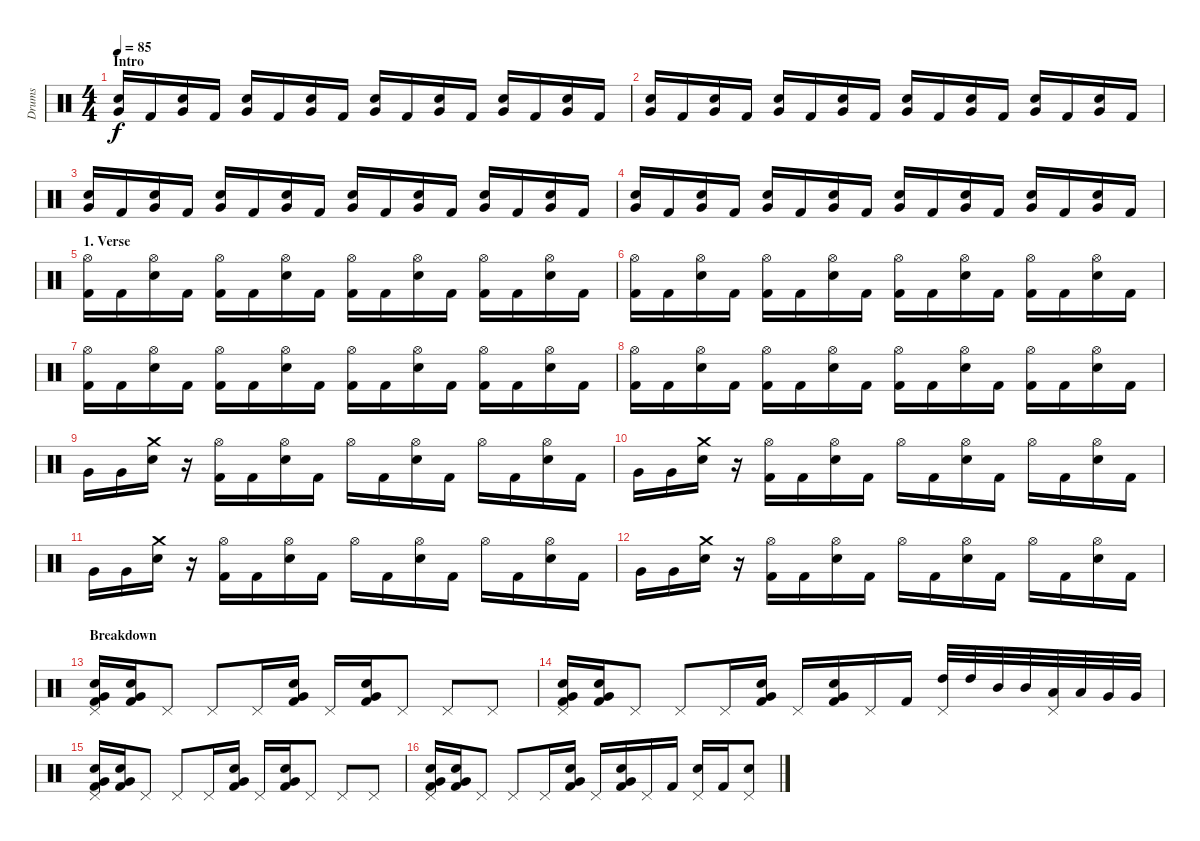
\track ("Drums" "Drums") {instrument percussion}
\staff {score}
\articulation defaults
\ts (4 4)
\section ("" "Intro")
\tempo 85
\clef neutral
\ks c
("Electric Snare (hit)" "Very Low Tom (hit)").16{dy f} "Kick (hit) 2".16 ("Electric Snare (hit)" "Very Low Tom (hit)").16 "Kick (hit) 2".16 ("Electric Snare (hit)" "Very Low Tom (hit)").16 "Kick (hit) 2".16 ("Electric Snare (hit)" "Very Low Tom (hit)").16 "Kick (hit) 2".16 ("Electric Snare (hit)" "Very Low Tom (hit)").16 "Kick (hit) 2".16 ("Electric Snare (hit)" "Very Low Tom (hit)").16 "Kick (hit) 2".16 ("Electric Snare (hit)" "Very Low Tom (hit)").16 "Kick (hit) 2".16 ("Electric Snare (hit)" "Very Low Tom (hit)").16 "Kick (hit) 2".16 |
("Electric Snare (hit)" "Very Low Tom (hit)").16 "Kick (hit) 2".16 ("Electric Snare (hit)" "Very Low Tom (hit)").16 "Kick (hit) 2".16 ("Electric Snare (hit)" "Very Low Tom (hit)").16 "Kick (hit) 2".16 ("Electric Snare (hit)" "Very Low Tom (hit)").16 "Kick (hit) 2".16 ("Electric Snare (hit)" "Very Low Tom (hit)").16 "Kick (hit) 2".16 ("Electric Snare (hit)" "Very Low Tom (hit)").16 "Kick (hit) 2".16 ("Electric Snare (hit)" "Very Low Tom (hit)").16 "Kick (hit) 2".16 ("Electric Snare (hit)" "Very Low Tom (hit)").16 "Kick (hit) 2".16 |
("Electric Snare (hit)" "Very Low Tom (hit)").16 "Kick (hit) 2".16 ("Electric Snare (hit)" "Very Low Tom (hit)").16 "Kick (hit) 2".16 ("Electric Snare (hit)" "Very Low Tom (hit)").16 "Kick (hit) 2".16 ("Electric Snare (hit)" "Very Low Tom (hit)").16 "Kick (hit) 2".16 ("Electric Snare (hit)" "Very Low Tom (hit)").16 "Kick (hit) 2".16 ("Electric Snare (hit)" "Very Low Tom (hit)").16 "Kick (hit) 2".16 ("Electric Snare (hit)" "Very Low Tom (hit)").16 "Kick (hit) 2".16 ("Electric Snare (hit)" "Very Low Tom (hit)").16 "Kick (hit) 2".16 |
("Electric Snare (hit)" "Very Low Tom (hit)").16 "Kick (hit) 2".16 ("Electric Snare (hit)" "Very Low Tom (hit)").16 "Kick (hit) 2".16 ("Electric Snare (hit)" "Very Low Tom (hit)").16 "Kick (hit) 2".16 ("Electric Snare (hit)" "Very Low Tom (hit)").16 "Kick (hit) 2".16 ("Electric Snare (hit)" "Very Low Tom (hit)").16 "Kick (hit) 2".16 ("Electric Snare (hit)" "Very Low Tom (hit)").16 "Kick (hit) 2".16 ("Electric Snare (hit)" "Very Low Tom (hit)").16 "Kick (hit) 2".16 ("Electric Snare (hit)" "Very Low Tom (hit)").16 "Kick (hit) 2".16 |
\section ("" "1. Verse")
("Hi-Hat (open)" "Kick (hit) 2").16 "Kick (hit) 2".16 ("Hi-Hat (open)" "Electric Snare (hit)").16 "Kick (hit) 2".16 ("Hi-Hat (open)" "Kick (hit) 2").16 "Kick (hit) 2".16 ("Hi-Hat (open)" "Electric Snare (hit)").16 "Kick (hit) 2".16 ("Hi-Hat (open)" "Kick (hit) 2").16 "Kick (hit) 2".16 ("Hi-Hat (open)" "Electric Snare (hit)").16 "Kick (hit) 2".16 ("Hi-Hat (open)" "Kick (hit) 2").16 "Kick (hit) 2".16 ("Hi-Hat (open)" "Electric Snare (hit)").16 "Kick (hit) 2".16 |
("Hi-Hat (open)" "Kick (hit) 2").16 "Kick (hit) 2".16 ("Hi-Hat (open)" "Electric Snare (hit)").16 "Kick (hit) 2".16 ("Hi-Hat (open)" "Kick (hit) 2").16 "Kick (hit) 2".16 ("Hi-Hat (open)" "Electric Snare (hit)").16 "Kick (hit) 2".16 ("Hi-Hat (open)" "Kick (hit) 2").16 "Kick (hit) 2".16 ("Hi-Hat (open)" "Electric Snare (hit)").16 "Kick (hit) 2".16 ("Hi-Hat (open)" "Kick (hit) 2").16 "Kick (hit) 2".16 ("Hi-Hat (open)" "Electric Snare (hit)").16 "Kick (hit) 2".16 |
("Hi-Hat (open)" "Kick (hit) 2").16 "Kick (hit) 2".16 ("Hi-Hat (open)" "Electric Snare (hit)").16 "Kick (hit) 2".16 ("Hi-Hat (open)" "Kick (hit) 2").16 "Kick (hit) 2".16 ("Hi-Hat (open)" "Electric Snare (hit)").16 "Kick (hit) 2".16 ("Hi-Hat (open)" "Kick (hit) 2").16 "Kick (hit) 2".16 ("Hi-Hat (open)" "Electric Snare (hit)").16 "Kick (hit) 2".16 ("Hi-Hat (open)" "Kick (hit) 2").16 "Kick (hit) 2".16 ("Hi-Hat (open)" "Electric Snare (hit)").16 "Kick (hit) 2".16 |
("Hi-Hat (open)" "Kick (hit) 2").16 "Kick (hit) 2".16 ("Hi-Hat (open)" "Electric Snare (hit)").16 "Kick (hit) 2".16 ("Hi-Hat (open)" "Kick (hit) 2").16 "Kick (hit) 2".16 ("Hi-Hat (open)" "Electric Snare (hit)").16 "Kick (hit) 2".16 ("Hi-Hat (open)" "Kick (hit) 2").16 "Kick (hit) 2".16 ("Hi-Hat (open)" "Electric Snare (hit)").16 "Kick (hit) 2".16 ("Hi-Hat (open)" "Kick (hit) 2").16 "Kick (hit) 2".16 ("Hi-Hat (open)" "Electric Snare (hit)").16 "Kick (hit) 2".16 |
"Very Low Tom (hit)".16 "Very Low Tom (hit)".16 ("Crash medium (hit)" "Electric Snare (hit)").16 r.16 ("Hi-Hat (open)" "Kick (hit) 2").16 "Kick (hit) 2".16 ("Hi-Hat (open)" "Electric Snare (hit)").16 "Kick (hit) 2".16 "Hi-Hat (open)".16 "Kick (hit) 2".16 ("Hi-Hat (open)" "Electric Snare (hit)").16 "Kick (hit) 2".16 "Hi-Hat (open)".16 "Kick (hit) 2".16 ("Hi-Hat (open)" "Electric Snare (hit)").16 "Kick (hit) 2".16 |
"Very Low Tom (hit)".16 "Very Low Tom (hit)".16 ("Crash medium (hit)" "Electric Snare (hit)").16 r.16 ("Hi-Hat (open)" "Kick (hit) 2").16 "Kick (hit) 2".16 ("Hi-Hat (open)" "Electric Snare (hit)").16 "Kick (hit) 2".16 "Hi-Hat (open)".16 "Kick (hit) 2".16 ("Hi-Hat (open)" "Electric Snare (hit)").16 "Kick (hit) 2".16 "Hi-Hat (open)".16 "Kick (hit) 2".16 ("Hi-Hat (open)" "Electric Snare (hit)").16 "Kick (hit) 2".16 |
"Very Low Tom (hit)".16 "Very Low Tom (hit)".16 ("Crash medium (hit)" "Electric Snare (hit)").16 r.16 ("Hi-Hat (open)" "Kick (hit) 2").16 "Kick (hit) 2".16 ("Hi-Hat (open)" "Electric Snare (hit)").16 "Kick (hit) 2".16 "Hi-Hat (open)".16 "Kick (hit) 2".16 ("Hi-Hat (open)" "Electric Snare (hit)").16 "Kick (hit) 2".16 "Hi-Hat (open)".16 "Kick (hit) 2".16 ("Hi-Hat (open)" "Electric Snare (hit)").16 "Kick (hit) 2".16 |
"Very Low Tom (hit)".16 "Very Low Tom (hit)".16 ("Crash medium (hit)" "Electric Snare (hit)").16 r.16 ("Hi-Hat (open)" "Kick (hit) 2").16 "Kick (hit) 2".16 ("Hi-Hat (open)" "Electric Snare (hit)").16 "Kick (hit) 2".16 "Hi-Hat (open)".16 "Kick (hit) 2".16 ("Hi-Hat (open)" "Electric Snare (hit)").16 "Kick (hit) 2".16 "Hi-Hat (open)".16 "Kick (hit) 2".16 ("Hi-Hat (open)" "Electric Snare (hit)").16 "Kick (hit) 2".16 |
\section ("" "Breakdown")
("Pedal Hi-Hat (hit)" "Electric Snare (hit)" "Very Low Tom (hit)" "Kick (hit) 2").16 ("Electric Snare (hit)" "Very Low Tom (hit)" "Kick (hit) 2").16 "Pedal Hi-Hat (hit)".8 "Pedal Hi-Hat (hit)".8 "Pedal Hi-Hat (hit)".16 ("Electric Snare (hit)" "Very Low Tom (hit)" "Kick (hit) 2").16 "Pedal Hi-Hat (hit)".16 ("Electric Snare (hit)" "Very Low Tom (hit)" "Kick (hit) 2").16 "Pedal Hi-Hat (hit)".8 "Pedal Hi-Hat (hit)".8 "Pedal Hi-Hat (hit)".8 |
("Pedal Hi-Hat (hit)" "Electric Snare (hit)" "Very Low Tom (hit)" "Kick (hit) 2").16 ("Electric Snare (hit)" "Very Low Tom (hit)" "Kick (hit) 2").16 "Pedal Hi-Hat (hit)".8 "Pedal Hi-Hat (hit)".8 "Pedal Hi-Hat (hit)".16 ("Electric Snare (hit)" "Very Low Tom (hit)" "Kick (hit) 2").16 "Pedal Hi-Hat (hit)".16 ("Electric Snare (hit)" "Very Low Tom (hit)" "Kick (hit) 2").16 "Pedal Hi-Hat (hit)".16 "Kick (hit) 2".16 ("Pedal Hi-Hat (hit)" "High Tom (hit)").32 "High Tom (hit)".32 "Mid Tom (hit)".32 "Mid Tom (hit)".32 ("Pedal Hi-Hat (hit)" "Low Tom (hit)").32 "Low Tom (hit)".32 "Very Low Tom (hit)".32 "Very Low Tom (hit)".32 |
("Pedal Hi-Hat (hit)" "Electric Snare (hit)" "Very Low Tom (hit)" "Kick (hit) 2").16 ("Electric Snare (hit)" "Very Low Tom (hit)" "Kick (hit) 2").16 "Pedal Hi-Hat (hit)".8 "Pedal Hi-Hat (hit)".8 "Pedal Hi-Hat (hit)".16 ("Electric Snare (hit)" "Very Low Tom (hit)" "Kick (hit) 2").16 "Pedal Hi-Hat (hit)".16 ("Electric Snare (hit)" "Very Low Tom (hit)" "Kick (hit) 2").16 "Pedal Hi-Hat (hit)".8 "Pedal Hi-Hat (hit)".8 "Pedal Hi-Hat (hit)".8 |
("Pedal Hi-Hat (hit)" "Electric Snare (hit)" "Very Low Tom (hit)" "Kick (hit) 2").16 ("Electric Snare (hit)" "Very Low Tom (hit)" "Kick (hit) 2").16 "Pedal Hi-Hat (hit)".8 "Pedal Hi-Hat (hit)".8 "Pedal Hi-Hat (hit)".16 ("Electric Snare (hit)" "Very Low Tom (hit)" "Kick (hit) 2").16 "Pedal Hi-Hat (hit)".16 ("Electric Snare (hit)" "Very Low Tom (hit)" "Kick (hit) 2").16 "Pedal Hi-Hat (hit)".16 "Kick (hit) 2".16 ("Pedal Hi-Hat (hit)" "Electric Snare (hit)").16 "Kick (hit) 2".16 ("Pedal Hi-Hat (hit)" "Electric Snare (hit)").8
